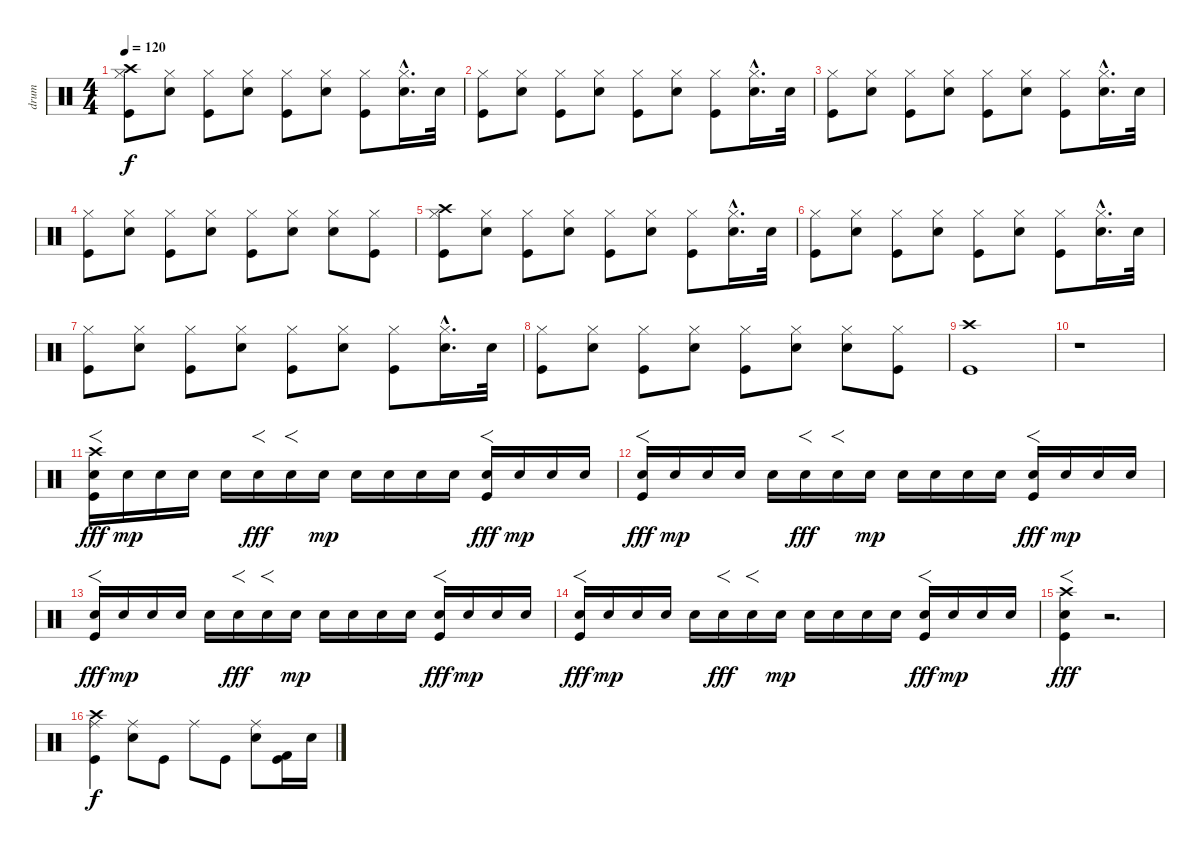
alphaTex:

\track ("drum " "drum ") {instrument percussion}
\staff {score}
\articulation defaults
\ts (4 4)
\tempo 120
\clef neutral
\ks c
("Crash high (hit)" "Hi-Hat (closed)" "Kick (hit)").8{dy f} ("Hi-Hat (closed)" "Snare (hit) 2").8 ("Hi-Hat (closed)" "Kick (hit)").8 ("Hi-Hat (closed)" "Snare (hit) 2").8 ("Hi-Hat (closed)" "Kick (hit)").8 ("Hi-Hat (closed)" "Snare (hit) 2").8 ("Hi-Hat (closed)" "Kick (hit)").8 ("Hi-Hat (closed)"{hac} "Snare (hit) 2"{hac}).16{d} "Snare (hit) 2".32 |
("Hi-Hat (closed)" "Kick (hit)").8 ("Hi-Hat (closed)" "Snare (hit) 2").8 ("Hi-Hat (closed)" "Kick (hit)").8 ("Hi-Hat (closed)" "Snare (hit) 2").8 ("Hi-Hat (closed)" "Kick (hit)").8 ("Hi-Hat (closed)" "Snare (hit) 2").8 ("Hi-Hat (closed)" "Kick (hit)").8 ("Hi-Hat (closed)"{hac} "Snare (hit) 2"{hac}).16{d} "Snare (hit) 2".32 |
("Hi-Hat (closed)" "Kick (hit)").8 ("Hi-Hat (closed)" "Snare (hit) 2").8 ("Hi-Hat (closed)" "Kick (hit)").8 ("Hi-Hat (closed)" "Snare (hit) 2").8 ("Hi-Hat (closed)" "Kick (hit)").8 ("Hi-Hat (closed)" "Snare (hit) 2").8 ("Hi-Hat (closed)" "Kick (hit)").8 ("Hi-Hat (closed)"{hac} "Snare (hit) 2"{hac}).16{d} "Snare (hit) 2".32 |
("Hi-Hat (closed)" "Kick (hit)").8 ("Hi-Hat (closed)" "Snare (hit) 2").8 ("Hi-Hat (closed)" "Kick (hit)").8 ("Hi-Hat (closed)" "Snare (hit) 2").8 ("Hi-Hat (closed)" "Kick (hit)").8 ("Hi-Hat (closed)" "Snare (hit) 2").8 ("Hi-Hat (closed)" "Snare (hit) 2").8 ("Hi-Hat (closed)" "Kick (hit)").8 |
("Crash high (hit)" "Hi-Hat (closed)" "Kick (hit)").8 ("Hi-Hat (closed)" "Snare (hit) 2").8 ("Hi-Hat (closed)" "Kick (hit)").8 ("Hi-Hat (closed)" "Snare (hit) 2").8 ("Hi-Hat (closed)" "Kick (hit)").8 ("Hi-Hat (closed)" "Snare (hit) 2").8 ("Hi-Hat (closed)" "Kick (hit)").8 ("Hi-Hat (closed)"{hac} "Snare (hit) 2"{hac}).16{d} "Snare (hit) 2".32 |
("Hi-Hat (closed)" "Kick (hit)").8 ("Hi-Hat (closed)" "Snare (hit) 2").8 ("Hi-Hat (closed)" "Kick (hit)").8 ("Hi-Hat (closed)" "Snare (hit) 2").8 ("Hi-Hat (closed)" "Kick (hit)").8 ("Hi-Hat (closed)" "Snare (hit) 2").8 ("Hi-Hat (closed)" "Kick (hit)").8 ("Hi-Hat (closed)"{hac} "Snare (hit) 2"{hac}).16{d} "Snare (hit) 2".32 |
("Hi-Hat (closed)" "Kick (hit)").8 ("Hi-Hat (closed)" "Snare (hit) 2").8 ("Hi-Hat (closed)" "Kick (hit)").8 ("Hi-Hat (closed)" "Snare (hit) 2").8 ("Hi-Hat (closed)" "Kick (hit)").8 ("Hi-Hat (closed)" "Snare (hit) 2").8 ("Hi-Hat (closed)" "Kick (hit)").8 ("Hi-Hat (closed)"{hac} "Snare (hit) 2"{hac}).16{d} "Snare (hit) 2".32 |
("Hi-Hat (closed)" "Kick (hit)").8 ("Hi-Hat (closed)" "Snare (hit) 2").8 ("Hi-Hat (closed)" "Kick (hit)").8 ("Hi-Hat (closed)" "Snare (hit) 2").8 ("Hi-Hat (closed)" "Kick (hit)").8 ("Hi-Hat (closed)" "Snare (hit) 2").8 ("Hi-Hat (closed)" "Snare (hit) 2").8 ("Hi-Hat (closed)" "Kick (hit)").8 |
("Crash high (hit)" "Kick (hit)").1 |
r.1 |
("Crash high (hit)" "Snare (hit) 2" "Kick (hit)").16{f dy fff} "Snare (hit) 2".16{dy mp} "Snare (hit) 2".16 "Snare (hit) 2".16 "Snare (hit) 2".16 "Snare (hit) 2".16{f dy fff} "Snare (hit) 2".16{f} "Snare (hit) 2".16{dy mp} "Snare (hit) 2".16 "Snare (hit) 2".16 "Snare (hit) 2".16 "Snare (hit) 2".16 ("Snare (hit) 2" "Kick (hit)").16{f dy fff} "Snare (hit) 2".16{dy mp} "Snare (hit) 2".16 "Snare (hit) 2".16 |
("Snare (hit) 2" "Kick (hit)").16{f dy fff} "Snare (hit) 2".16{dy mp} "Snare (hit) 2".16 "Snare (hit) 2".16 "Snare (hit) 2".16 "Snare (hit) 2".16{f dy fff} "Snare (hit) 2".16{f} "Snare (hit) 2".16{dy mp} "Snare (hit) 2".16 "Snare (hit) 2".16 "Snare (hit) 2".16 "Snare (hit) 2".16 ("Snare (hit) 2" "Kick (hit)").16{f dy fff} "Snare (hit) 2".16{dy mp} "Snare (hit) 2".16 "Snare (hit) 2".16 |
("Snare (hit) 2" "Kick (hit)").16{f dy fff} "Snare (hit) 2".16{dy mp} "Snare (hit) 2".16 "Snare (hit) 2".16 "Snare (hit) 2".16 "Snare (hit) 2".16{f dy fff} "Snare (hit) 2".16{f} "Snare (hit) 2".16{dy mp} "Snare (hit) 2".16 "Snare (hit) 2".16 "Snare (hit) 2".16 "Snare (hit) 2".16 ("Snare (hit) 2" "Kick (hit)").16{f dy fff} "Snare (hit) 2".16{dy mp} "Snare (hit) 2".16 "Snare (hit) 2".16 |
("Snare (hit) 2" "Kick (hit)").16{f dy fff} "Snare (hit) 2".16{dy mp} "Snare (hit) 2".16 "Snare (hit) 2".16 "Snare (hit) 2".16 "Snare (hit) 2".16{f dy fff} "Snare (hit) 2".16{f} "Snare (hit) 2".16{dy mp} "Snare (hit) 2".16 "Snare (hit) 2".16 "Snare (hit) 2".16 "Snare (hit) 2".16 ("Snare (hit) 2" "Kick (hit)").16{f dy fff} "Snare (hit) 2".16{dy mp} "Snare (hit) 2".16 "Snare (hit) 2".16 |
("Crash high (hit)" "Snare (hit) 2" "Kick (hit)").4{f dy fff} r.2{d} |
("Crash high (hit)" "Ride (middle)" "Kick (hit)").4{dy f} ("Ride (middle)" "Snare (hit) 2").8 "Kick (hit)".8 "Ride (middle)".8 "Kick (hit)".8 ("Ride (middle)" "Snare (hit) 2").8 ("Kick (hit) 2" "Kick (hit)").16 "Snare (hit) 2".16
